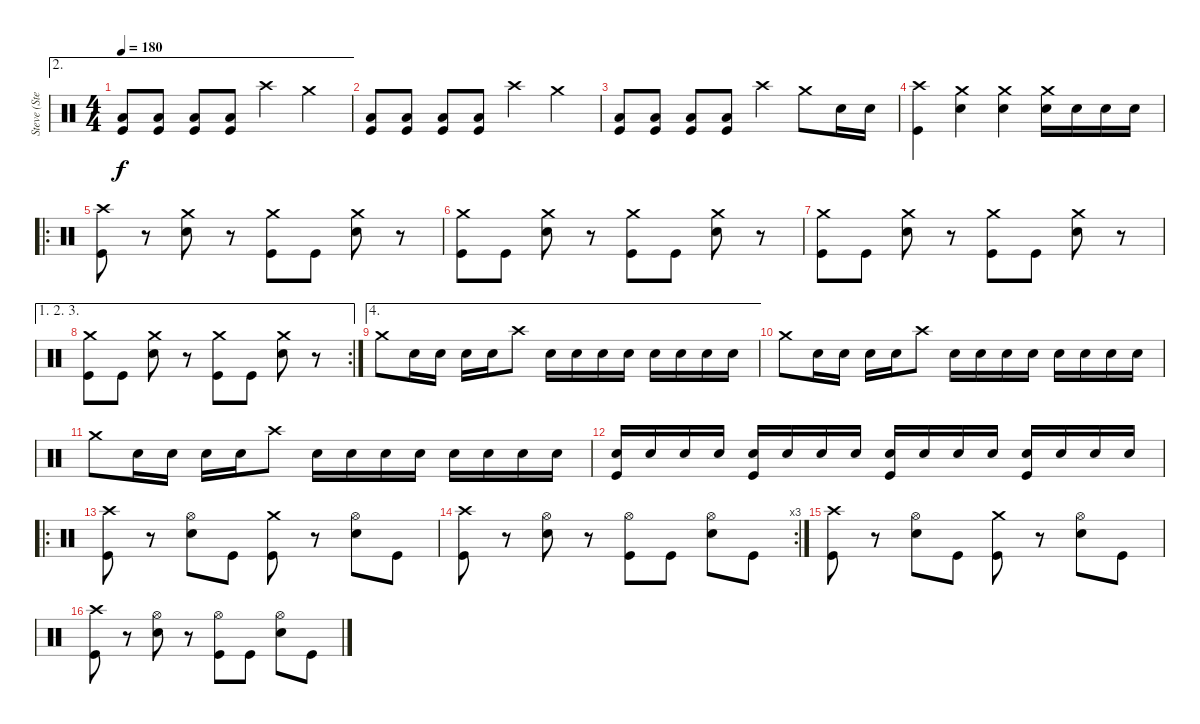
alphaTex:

\track ("Steve (Stevo32) - Drums" "Steve (Ste") {instrument percussion}
\staff {score}
\articulation defaults
\ae 2
\ts (4 4)
\tempo 180
\clef neutral
\ks c
("Low Floor Tom (hit)" "Kick (hit)").8{dy f} ("Low Floor Tom (hit)" "Kick (hit)").8 ("Low Floor Tom (hit)" "Kick (hit)").8 ("Low Floor Tom (hit)" "Kick (hit)").8 "Crash high (hit)".4 "Crash medium (hit)".4 |
("Low Floor Tom (hit)" "Kick (hit)").8 ("Low Floor Tom (hit)" "Kick (hit)").8 ("Low Floor Tom (hit)" "Kick (hit)").8 ("Low Floor Tom (hit)" "Kick (hit)").8 "Crash high (hit)".4 "Crash medium (hit)".4 |
("Low Floor Tom (hit)" "Kick (hit)").8 ("Low Floor Tom (hit)" "Kick (hit)").8 ("Low Floor Tom (hit)" "Kick (hit)").8 ("Low Floor Tom (hit)" "Kick (hit)").8 "Crash high (hit)".4 "Crash medium (hit)".8 "Electric Snare (hit)".16 "Electric Snare (hit)".16 |
("Crash high (hit)" "Kick (hit)").4 ("Crash medium (hit)" "Electric Snare (hit)").4 ("Crash medium (hit)" "Electric Snare (hit)").4 ("Crash medium (hit)" "Electric Snare (hit)").16 "Electric Snare (hit)".16 "Electric Snare (hit)".16 "Electric Snare (hit)".16 |
\ro
("Crash high (hit)" "Kick (hit)").8 r.8 ("Crash medium (hit)" "Electric Snare (hit)").8 r.8 ("Crash medium (hit)" "Kick (hit)").8 "Kick (hit)".8 ("Crash medium (hit)" "Electric Snare (hit)").8 r.8 |
("Crash medium (hit)" "Kick (hit)").8 "Kick (hit)".8 ("Crash medium (hit)" "Electric Snare (hit)").8 r.8 ("Crash medium (hit)" "Kick (hit)").8 "Kick (hit)".8 ("Crash medium (hit)" "Electric Snare (hit)").8 r.8 |
("Crash medium (hit)" "Kick (hit)").8 "Kick (hit)".8 ("Crash medium (hit)" "Electric Snare (hit)").8 r.8 ("Crash medium (hit)" "Kick (hit)").8 "Kick (hit)".8 ("Crash medium (hit)" "Electric Snare (hit)").8 r.8 |
\ae (1 2 3)
\rc 2
("Crash medium (hit)" "Kick (hit)").8 "Kick (hit)".8 ("Crash medium (hit)" "Electric Snare (hit)").8 r.8 ("Crash medium (hit)" "Kick (hit)").8 "Kick (hit)".8 ("Crash medium (hit)" "Electric Snare (hit)").8 r.8 |
\ae 4 "Crash medium (hit)".8 "Electric Snare (hit)".16 "Electric Snare (hit)".16 "Electric Snare (hit)".16 "Electric Snare (hit)".16 "Crash high (hit)".8 "Electric Snare (hit)".16 "Electric Snare (hit)".16 "Electric Snare (hit)".16 "Electric Snare (hit)".16 "Electric Snare (hit)".16 "Electric Snare (hit)".16 "Electric Snare (hit)".16 "Electric Snare (hit)".16
|
"Crash medium (hit)".8 "Electric Snare (hit)".16 "Electric Snare (hit)".16 "Electric Snare (hit)".16 "Electric Snare (hit)".16 "Crash high (hit)".8 "Electric Snare (hit)".16 "Electric Snare (hit)".16 "Electric Snare (hit)".16 "Electric Snare (hit)".16 "Electric Snare (hit)".16 "Electric Snare (hit)".16 "Electric Snare (hit)".16 "Electric Snare (hit)".16 |
"Crash medium (hit)".8 "Electric Snare (hit)".16 "Electric Snare (hit)".16 "Electric Snare (hit)".16 "Electric Snare (hit)".16 "Crash high (hit)".8 "Electric Snare (hit)".16 "Electric Snare (hit)".16 "Electric Snare (hit)".16 "Electric Snare (hit)".16 "Electric Snare (hit)".16 "Electric Snare (hit)".16 "Electric Snare (hit)".16 "Electric Snare (hit)".16 |
("Electric Snare (hit)" "Kick (hit)").16 "Electric Snare (hit)".16 "Electric Snare (hit)".16 "Electric Snare (hit)".16 ("Electric Snare (hit)" "Kick (hit)").16 "Electric Snare (hit)".16 "Electric Snare (hit)".16 "Electric Snare (hit)".16 ("Electric Snare (hit)" "Kick (hit)").16 "Electric Snare (hit)".16 "Electric Snare (hit)".16 "Electric Snare (hit)".16 ("Electric Snare (hit)" "Kick (hit)").16 "Electric Snare (hit)".16 "Electric Snare (hit)".16 "Electric Snare (hit)".16 |
\ro
("Crash high (hit)" "Kick (hit)").8 r.8 ("Hi-Hat (open)" "Electric Snare (hit)").8 "Kick (hit)".8 ("Crash medium (hit)" "Kick (hit)").8 r.8 ("Hi-Hat (open)" "Electric Snare (hit)").8 "Kick (hit)".8 |
\rc 3
("Crash high (hit)" "Kick (hit)").8 r.8 ("Hi-Hat (open)" "Electric Snare (hit)").8 r.8 ("Hi-Hat (open)" "Kick (hit)").8 "Kick (hit)".8 ("Hi-Hat (open)" "Electric Snare (hit)").8 "Kick (hit)".8 |
("Crash high (hit)" "Kick (hit)").8 r.8 ("Hi-Hat (open)" "Electric Snare (hit)").8 "Kick (hit)".8 ("Crash medium (hit)" "Kick (hit)").8 r.8 ("Hi-Hat (open)" "Electric Snare (hit)").8 "Kick (hit)".8 |
("Crash high (hit)" "Kick (hit)").8 r.8 ("Hi-Hat (open)" "Electric Snare (hit)").8 r.8 ("Hi-Hat (open)" "Kick (hit)").8 "Kick (hit)".8 ("Hi-Hat (open)" "Electric Snare (hit)").8 "Kick (hit)".8
